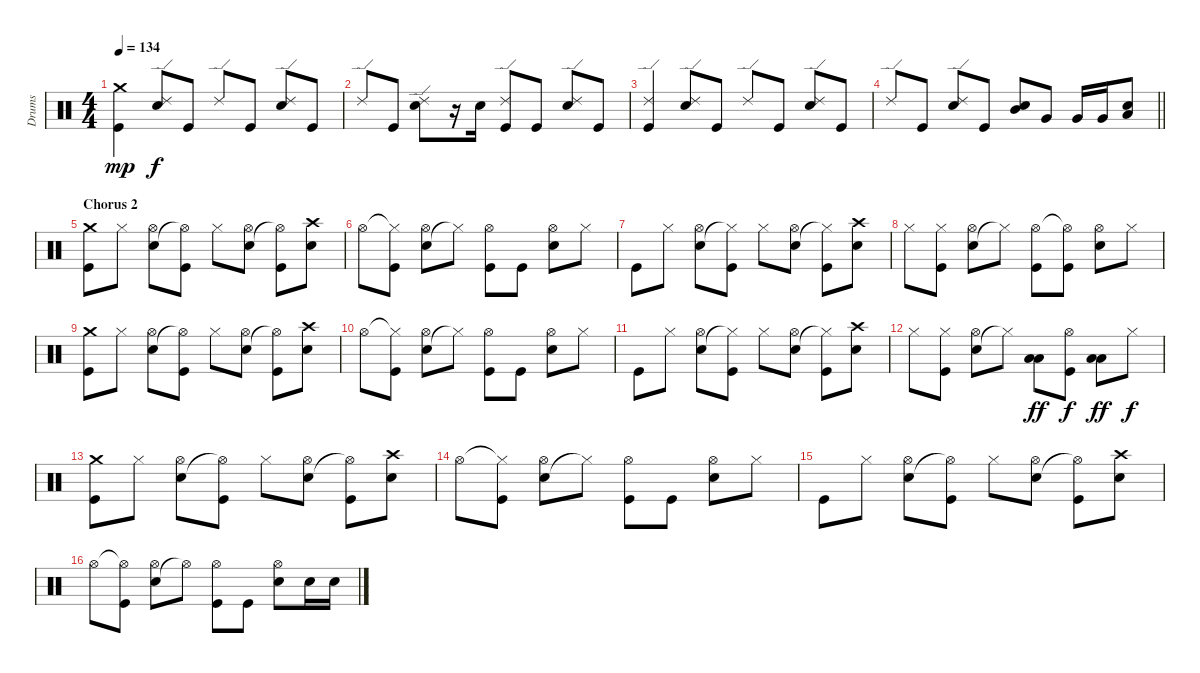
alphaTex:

\track ("Drums" "Drums") {instrument percussion}
\staff {score}
\articulation defaults
\ts (4 4)
\tempo 134
\clef neutral
\ks c
("Crash medium (hit)" "Kick (hit)").4{dy mp} ("Ride (edge) 2" "Snare (hit) 2").8{dy f} "Kick (hit)".8 "Ride (edge) 2".8 "Kick (hit)".8 ("Ride (edge) 2" "Snare (hit) 2").8 "Kick (hit)".8 |
"Ride (edge) 2".8 "Kick (hit)".8 ("Ride (edge) 2" "Snare (hit) 2").8 r.16 "Snare (hit) 2".16 ("Ride (edge) 2" "Kick (hit)").8 "Kick (hit)".8 ("Ride (edge) 2" "Snare (hit) 2").8 "Kick (hit)".8 |
("Ride (edge) 2" "Kick (hit)").4 ("Ride (edge) 2" "Snare (hit) 2").8 "Kick (hit)".8 "Ride (edge) 2".8 "Kick (hit)".8 ("Ride (edge) 2" "Snare (hit) 2").8 "Kick (hit)".8 |
\barLineRight lightlight "Ride (edge) 2".8 "Kick (hit)".8
("Ride (edge) 2" "Snare (hit) 2").8 "Kick (hit)".8 ("Snare (hit) 2" "Mid Tom (hit)").8 "Very Low Tom (hit)".8 "Very Low Tom (hit)".16 "Very Low Tom (hit)".16 ("Snare (hit) 2" "Low Tom (hit)").8 |
\section ("" "Chorus 2")
("Crash medium (hit)" "Kick (hit)").8 "Hi-Hat (closed)".8 ("Snare (hit) 2" "Hi-Hat (open)").8 ("Hi-Hat (open)"{t} "Kick (hit)").8 "Hi-Hat (closed)".8 ("Snare (hit) 2" "Hi-Hat (open)").8 ("Hi-Hat (open)"{t} "Kick (hit)").8 ("Crash high (hit)" "Snare (hit) 2").8 |
"Hi-Hat (open)".8 ("Hi-Hat (closed)"{t} "Kick (hit)").8 ("Snare (hit) 2" "Hi-Hat (open)").8 "Hi-Hat (closed)"{t}.8 ("Hi-Hat (open)" "Kick (hit)").8 "Kick (hit)".8 ("Snare (hit) 2" "Hi-Hat (open)").8 "Hi-Hat (closed)".8 |
"Kick (hit)".8 "Hi-Hat (closed)".8 ("Snare (hit) 2" "Hi-Hat (open)").8 ("Hi-Hat (closed)"{t} "Kick (hit)").8 "Hi-Hat (closed)".8 ("Snare (hit) 2" "Hi-Hat (open)").8 ("Hi-Hat (closed)"{t} "Kick (hit)").8 ("Crash high (hit)" "Snare (hit) 2").8 |
"Hi-Hat (closed)".8 ("Hi-Hat (closed)" "Kick (hit)").8 ("Snare (hit) 2" "Hi-Hat (open)").8 "Hi-Hat (closed)"{t}.8 ("Hi-Hat (open)" "Kick (hit)").8 ("Hi-Hat (open)"{t} "Kick (hit)").8 ("Snare (hit) 2" "Hi-Hat (open)").8 "Hi-Hat (closed)".8 |
("Crash medium (hit)" "Kick (hit)").8 "Hi-Hat (closed)".8 ("Snare (hit) 2" "Hi-Hat (open)").8 ("Hi-Hat (open)"{t} "Kick (hit)").8 "Hi-Hat (closed)".8 ("Snare (hit) 2" "Hi-Hat (open)").8 ("Hi-Hat (open)"{t} "Kick (hit)").8 ("Crash high (hit)" "Snare (hit) 2").8 |
"Hi-Hat (open)".8 ("Hi-Hat (closed)"{t} "Kick (hit)").8 ("Snare (hit) 2" "Hi-Hat (open)").8 "Hi-Hat (closed)"{t}.8 ("Hi-Hat (open)" "Kick (hit)").8 "Kick (hit)".8 ("Snare (hit) 2" "Hi-Hat (open)").8 "Hi-Hat (closed)".8 |
"Kick (hit)".8 "Hi-Hat (closed)".8 ("Snare (hit) 2" "Hi-Hat (open)").8 ("Hi-Hat (closed)"{t} "Kick (hit)").8 "Hi-Hat (closed)".8 ("Snare (hit) 2" "Hi-Hat (open)").8 ("Hi-Hat (closed)"{t} "Kick (hit)").8 ("Crash high (hit)" "Snare (hit) 2").8 |
"Hi-Hat (closed)".8 ("Hi-Hat (closed)" "Kick (hit)").8 ("Snare (hit) 2" "Hi-Hat (open)").8 "Hi-Hat (closed)"{t}.8 ("Low Tom (hit)" "Low Floor Tom (hit)").8{dy ff} ("Hi-Hat (open)" "Kick (hit)").8{dy f} ("Low Tom (hit)" "Low Floor Tom (hit)").8{dy ff} "Hi-Hat (closed)".8{dy f} |
("Crash medium (hit)" "Kick (hit)").8 "Hi-Hat (closed)".8 ("Snare (hit) 2" "Hi-Hat (open)").8 ("Hi-Hat (open)"{t} "Kick (hit)").8 "Hi-Hat (closed)".8 ("Snare (hit) 2" "Hi-Hat (open)").8 ("Hi-Hat (open)"{t} "Kick (hit)").8 ("Crash high (hit)" "Snare (hit) 2").8 |
"Hi-Hat (open)".8 ("Hi-Hat (closed)"{t} "Kick (hit)").8 ("Snare (hit) 2" "Hi-Hat (open)").8 "Hi-Hat (closed)"{t}.8 ("Hi-Hat (open)" "Kick (hit)").8 "Kick (hit)".8 ("Snare (hit) 2" "Hi-Hat (open)").8 "Hi-Hat (closed)".8 |
"Kick (hit)".8 "Hi-Hat (closed)".8 ("Snare (hit) 2" "Hi-Hat (open)").8 ("Hi-Hat (open)"{t} "Kick (hit)").8 "Hi-Hat (closed)".8 ("Snare (hit) 2" "Hi-Hat (open)").8 ("Hi-Hat (open)"{t} "Kick (hit)").8 ("Crash high (hit)" "Snare (hit) 2").8 |
"Hi-Hat (open)".8 ("Hi-Hat (open)"{t} "Kick (hit)").8 ("Snare (hit) 2" "Hi-Hat (open)").8 "Hi-Hat (open)"{t}.8 ("Hi-Hat (open)" "Kick (hit)").8 "Kick (hit)".8 ("Snare (hit) 2" "Hi-Hat (open)").8 "Snare (hit) 2".16 "Snare (hit) 2".16
